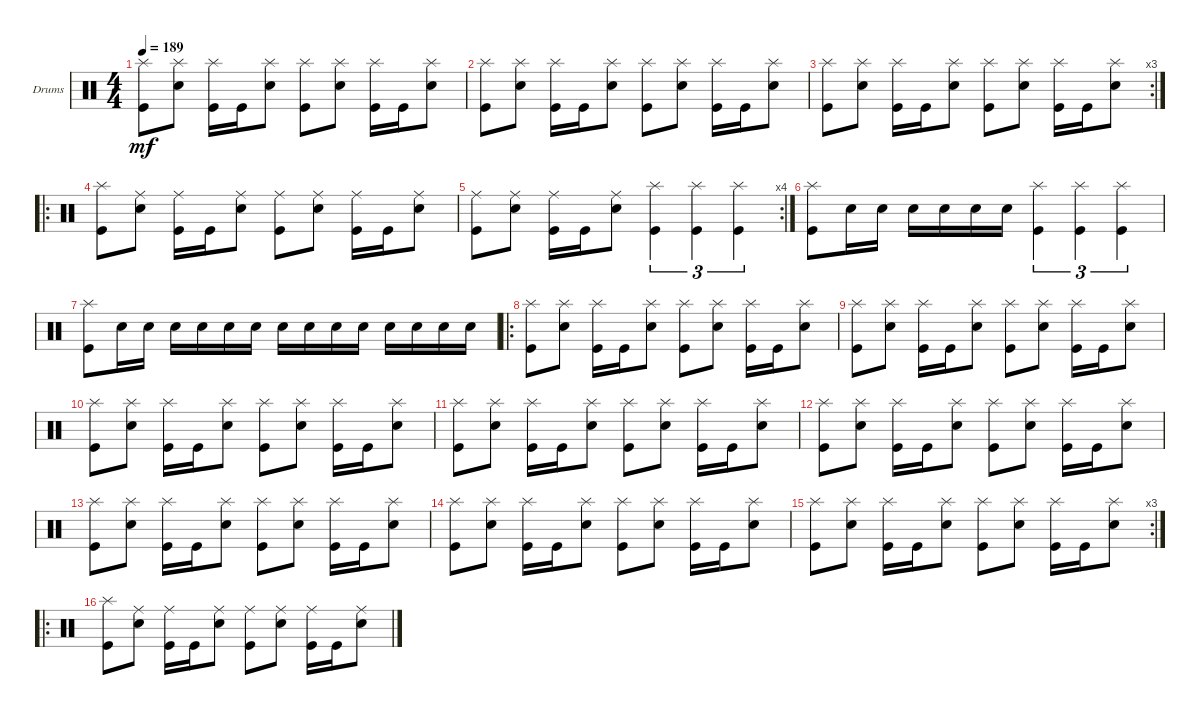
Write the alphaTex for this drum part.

\defaultSystemsLayout 4
\bracketExtendMode groupsimilarinstruments
\firstSystemTrackNameOrientation horizontal
\otherSystemsTrackNameOrientation horizontal
\track ("Drumkit" "Drums") {instrument percussion}
\staff {score}
\articulation defaults
\ts (4 4)
\tempo 189
\clef neutral
\ks c
("Kick (hit)" "Splash (hit)").8{dy mf} ("Snare (hit) 2" "Splash (hit)").8 ("Kick (hit)" "Splash (hit)").16 "Kick (hit)".16 ("Snare (hit) 2" "Splash (hit)").8 ("Kick (hit)" "Splash (hit)").8 ("Snare (hit) 2" "Splash (hit)").8 ("Kick (hit)" "Splash (hit)").16 "Kick (hit)".16 ("Snare (hit) 2" "Splash (hit)").8 |
("Kick (hit)" "Splash (hit)").8 ("Snare (hit) 2" "Splash (hit)").8 ("Kick (hit)" "Splash (hit)").16 "Kick (hit)".16 ("Snare (hit) 2" "Splash (hit)").8 ("Kick (hit)" "Splash (hit)").8 ("Snare (hit) 2" "Splash (hit)").8 ("Kick (hit)" "Splash (hit)").16 "Kick (hit)".16 ("Snare (hit) 2" "Splash (hit)").8 |
\rc 3
("Kick (hit)" "Splash (hit)").8 ("Snare (hit) 2" "Splash (hit)").8 ("Kick (hit)" "Splash (hit)").16 "Kick (hit)".16 ("Snare (hit) 2" "Splash (hit)").8 ("Kick (hit)" "Splash (hit)").8 ("Snare (hit) 2" "Splash (hit)").8 ("Kick (hit)" "Splash (hit)").16 "Kick (hit)".16 ("Snare (hit) 2" "Splash (hit)").8 |
\ro
("Kick (hit)" "Splash (hit)").8 ("Snare (hit) 2" "Ride (middle)").8 ("Kick (hit)" "Ride (middle)").16 "Kick (hit)".16 ("Snare (hit) 2" "Ride (middle)").8 ("Kick (hit)" "Ride (middle)").8 ("Snare (hit) 2" "Ride (middle)").8 ("Kick (hit)" "Ride (middle)").16 "Kick (hit)".16 ("Snare (hit) 2" "Ride (middle)").8 |
\rc 4
("Kick (hit)" "Ride (middle)").8 ("Snare (hit) 2" "Ride (middle)").8 ("Kick (hit)" "Ride (middle)").16 "Kick (hit)".16 ("Snare (hit) 2" "Ride (middle)").8 ("Kick (hit)" "Splash (hit)").4{tu (3 2)} ("Kick (hit)" "Splash (hit)").4{tu (3 2)} ("Kick (hit)" "Splash (hit)").4{tu (3 2)} |
("Kick (hit)" "Splash (hit)").8 "Snare (hit) 2".16 "Snare (hit) 2".16 "Snare (hit) 2".16 "Snare (hit) 2".16 "Snare (hit) 2".16 "Snare (hit) 2".16 ("Kick (hit)" "Splash (hit)").4{tu (3 2)} ("Kick (hit)" "Splash (hit)").4{tu (3 2)} ("Kick (hit)" "Splash (hit)").4{tu (3 2)} |
("Kick (hit)" "Splash (hit)").8 "Snare (hit) 2".16 "Snare (hit) 2".16 "Snare (hit) 2".16 "Snare (hit) 2".16 "Snare (hit) 2".16 "Snare (hit) 2".16 "Snare (hit) 2".16 "Snare (hit) 2".16 "Snare (hit) 2".16 "Snare (hit) 2".16 "Snare (hit) 2".16 "Snare (hit) 2".16 "Snare (hit) 2".16 "Snare (hit) 2".16 |
\ro
("Kick (hit)" "Splash (hit)").8 ("Snare (hit) 2" "Splash (hit)").8 ("Kick (hit)" "Splash (hit)").16 "Kick (hit)".16 ("Snare (hit) 2" "Splash (hit)").8 ("Kick (hit)" "Splash (hit)").8 ("Snare (hit) 2" "Splash (hit)").8 ("Kick (hit)" "Splash (hit)").16 "Kick (hit)".16 ("Snare (hit) 2" "Splash (hit)").8 |
("Kick (hit)" "Splash (hit)").8 ("Snare (hit) 2" "Splash (hit)").8 ("Kick (hit)" "Splash (hit)").16 "Kick (hit)".16 ("Snare (hit) 2" "Splash (hit)").8 ("Kick (hit)" "Splash (hit)").8 ("Snare (hit) 2" "Splash (hit)").8 ("Kick (hit)" "Splash (hit)").16 "Kick (hit)".16 ("Snare (hit) 2" "Splash (hit)").8 |
("Kick (hit)" "Splash (hit)").8 ("Snare (hit) 2" "Splash (hit)").8 ("Kick (hit)" "Splash (hit)").16 "Kick (hit)".16 ("Snare (hit) 2" "Splash (hit)").8 ("Kick (hit)" "Splash (hit)").8 ("Snare (hit) 2" "Splash (hit)").8 ("Kick (hit)" "Splash (hit)").16 "Kick (hit)".16 ("Snare (hit) 2" "Splash (hit)").8 |
("Kick (hit)" "Splash (hit)").8 ("Snare (hit) 2" "Splash (hit)").8 ("Kick (hit)" "Splash (hit)").16 "Kick (hit)".16 ("Snare (hit) 2" "Splash (hit)").8 ("Kick (hit)" "Splash (hit)").8 ("Snare (hit) 2" "Splash (hit)").8 ("Kick (hit)" "Splash (hit)").16 "Kick (hit)".16 ("Snare (hit) 2" "Splash (hit)").8 |
("Kick (hit)" "Splash (hit)").8 ("Snare (hit) 2" "Splash (hit)").8 ("Kick (hit)" "Splash (hit)").16 "Kick (hit)".16 ("Snare (hit) 2" "Splash (hit)").8 ("Kick (hit)" "Splash (hit)").8 ("Snare (hit) 2" "Splash (hit)").8 ("Kick (hit)" "Splash (hit)").16 "Kick (hit)".16 ("Snare (hit) 2" "Splash (hit)").8 |
("Kick (hit)" "Splash (hit)").8 ("Snare (hit) 2" "Splash (hit)").8 ("Kick (hit)" "Splash (hit)").16 "Kick (hit)".16 ("Snare (hit) 2" "Splash (hit)").8 ("Kick (hit)" "Splash (hit)").8 ("Snare (hit) 2" "Splash (hit)").8 ("Kick (hit)" "Splash (hit)").16 "Kick (hit)".16 ("Snare (hit) 2" "Splash (hit)").8 |
("Kick (hit)" "Splash (hit)").8 ("Snare (hit) 2" "Splash (hit)").8 ("Kick (hit)" "Splash (hit)").16 "Kick (hit)".16 ("Snare (hit) 2" "Splash (hit)").8 ("Kick (hit)" "Splash (hit)").8 ("Snare (hit) 2" "Splash (hit)").8 ("Kick (hit)" "Splash (hit)").16 "Kick (hit)".16 ("Snare (hit) 2" "Splash (hit)").8 |
\rc 3
("Kick (hit)" "Splash (hit)").8 ("Snare (hit) 2" "Splash (hit)").8 ("Kick (hit)" "Splash (hit)").16 "Kick (hit)".16 ("Snare (hit) 2" "Splash (hit)").8 ("Kick (hit)" "Splash (hit)").8 ("Snare (hit) 2" "Splash (hit)").8 ("Kick (hit)" "Splash (hit)").16 "Kick (hit)".16 ("Snare (hit) 2" "Splash (hit)").8 |
\ro
("Kick (hit)" "Splash (hit)").8 ("Snare (hit) 2" "Ride (middle)").8 ("Kick (hit)" "Ride (middle)").16 "Kick (hit)".16 ("Snare (hit) 2" "Ride (middle)").8 ("Kick (hit)" "Ride (middle)").8 ("Snare (hit) 2" "Ride (middle)").8 ("Kick (hit)" "Ride (middle)").16 "Kick (hit)".16 ("Snare (hit) 2" "Ride (middle)").8
